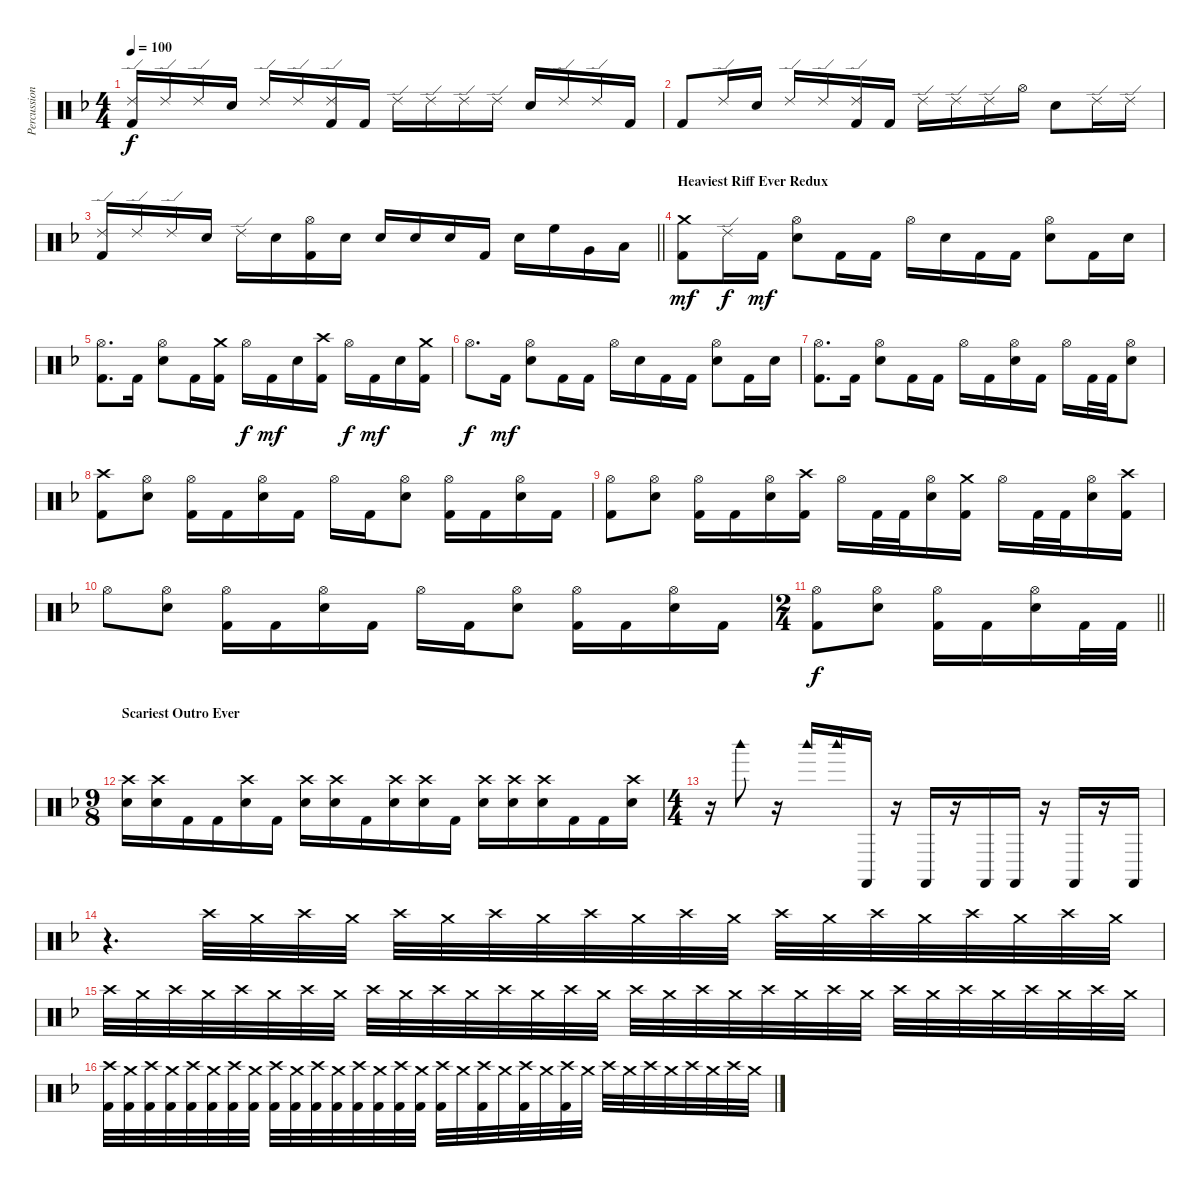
\track ("Percussion" "Percussion") {instrument percussion}
\staff {score}
\articulation defaults
\ts (4 4)
\tempo 100
\clef neutral
\ks dminor
("Ride (edge) 2" "Kick (hit) 2").16{dy f} "Ride (edge) 2".16 "Ride (edge) 2".16 "Snare (hit) 2".16 "Ride (edge) 2".16 "Ride (edge) 2".16 ("Ride (edge) 2" "Kick (hit) 2").16 "Kick (hit) 2".16 "Ride (edge) 2".16 "Ride (edge) 2".16 "Ride (edge) 2".16 "Ride (edge) 2".16 "Snare (hit) 2".16 "Ride (edge) 2".16 "Ride (edge) 2".16 "Kick (hit) 2".16 |
"Kick (hit) 2".8 "Ride (edge) 2".16 "Snare (hit) 2".16 "Ride (edge) 2".16 "Ride (edge) 2".16 ("Ride (edge) 2" "Kick (hit) 2").16 "Kick (hit) 2".16 "Ride (edge) 2".16 "Ride (edge) 2".16 "Ride (edge) 2".16 "Hi-Hat (open)".16 "Snare (hit) 2".8 "Ride (edge) 2".16 "Ride (edge) 2".16 |
\barLineRight lightlight
("Ride (edge) 2" "Kick (hit) 2").16 "Ride (edge) 2".16 "Ride (edge) 2".16 "Snare (hit) 2".16 "Ride (edge) 2".16 "Snare (hit) 2".16 ("Hi-Hat (open)" "Kick (hit) 2").16 "Snare (hit) 2".16 "Snare (hit) 2".16 "Snare (hit) 2".16 "Snare (hit) 2".16 "Kick (hit) 2".16 "Snare (hit) 2".16 "High Floor Tom (hit)".16 "Very Low Tom (hit)".16 "Low Floor Tom (hit)".16 |
\section ("" "Heaviest Riff Ever Redux")
("Crash medium (hit)" "Kick (hit) 2").8{dy mf} "Ride (edge) 2".16{dy f} "Kick (hit) 2".16{dy mf} ("Hi-Hat (open)" "Snare (hit) 2").8 "Kick (hit) 2".16 "Kick (hit) 2".16 "Hi-Hat (open)".16 "Snare (hit) 2".16 "Kick (hit) 2".16 "Kick (hit) 2".16 ("Hi-Hat (open)" "Snare (hit) 2").8 "Kick (hit) 2".16 "Snare (hit) 2".16 |
("Hi-Hat (open)" "Kick (hit) 2").8{d} "Kick (hit) 2".16 ("Hi-Hat (open)" "Snare (hit) 2").8 "Kick (hit) 2".16 ("Crash medium (hit)" "Kick (hit) 2").16 "Hi-Hat (open)".16{dy f} "Kick (hit) 2".16{dy mf} "Snare (hit) 2".16 ("Crash high (hit)" "Kick (hit) 2").16 "Hi-Hat (open)".16{dy f} "Kick (hit) 2".16{dy mf} "Snare (hit) 2".16 ("Crash medium (hit)" "Kick (hit) 2").16 |
"Hi-Hat (open)".8{d dy f} "Kick (hit) 2".16{dy mf} ("Hi-Hat (open)" "Snare (hit) 2").8 "Kick (hit) 2".16 "Kick (hit) 2".16 "Hi-Hat (open)".16 "Snare (hit) 2".16 "Kick (hit) 2".16 "Kick (hit) 2".16 ("Hi-Hat (open)" "Snare (hit) 2").8 "Kick (hit) 2".16 "Snare (hit) 2".16 |
("Hi-Hat (open)" "Kick (hit) 2").8{d} "Kick (hit) 2".16 ("Hi-Hat (open)" "Snare (hit) 2").8 "Kick (hit) 2".16 "Kick (hit) 2".16 "Hi-Hat (open)".16 "Kick (hit) 2".16 ("Hi-Hat (open)" "Snare (hit) 2").16 "Kick (hit) 2".16 "Hi-Hat (open)".16 "Kick (hit) 2".32 "Kick (hit) 2".32 ("Hi-Hat (open)" "Snare (hit) 2").8 |
("Crash high (hit)" "Kick (hit) 2").8 ("Hi-Hat (open)" "Snare (hit) 2").8 ("Hi-Hat (open)" "Kick (hit) 2").16 "Kick (hit) 2".16 ("Hi-Hat (open)" "Snare (hit) 2").16 "Kick (hit) 2".16 "Hi-Hat (open)".16 "Kick (hit) 2".16 ("Hi-Hat (open)" "Snare (hit) 2").8 ("Hi-Hat (open)" "Kick (hit) 2").16 "Kick (hit) 2".16 ("Hi-Hat (open)" "Snare (hit) 2").16 "Kick (hit) 2".16 |
("Hi-Hat (open)" "Kick (hit) 2").8 ("Hi-Hat (open)" "Snare (hit) 2").8 ("Hi-Hat (open)" "Kick (hit) 2").16 "Kick (hit) 2".16 ("Hi-Hat (open)" "Snare (hit) 2").16 ("Crash high (hit)" "Kick (hit) 2").16 "Hi-Hat (open)".16 "Kick (hit) 2".32 "Kick (hit) 2".32 ("Hi-Hat (open)" "Snare (hit) 2").16 ("Crash medium (hit)" "Kick (hit) 2").16 "Hi-Hat (open)".16 "Kick (hit) 2".32 "Kick (hit) 2".32 ("Hi-Hat (open)" "Snare (hit) 2").16 ("Crash high (hit)" "Kick (hit) 2").16 |
"Hi-Hat (open)".8 ("Hi-Hat (open)" "Snare (hit) 2").8 ("Hi-Hat (open)" "Kick (hit) 2").16 "Kick (hit) 2".16 ("Hi-Hat (open)" "Snare (hit) 2").16 "Kick (hit) 2".16 "Hi-Hat (open)".16 "Kick (hit) 2".16 ("Hi-Hat (open)" "Snare (hit) 2").8 ("Hi-Hat (open)" "Kick (hit) 2").16 "Kick (hit) 2".16 ("Hi-Hat (open)" "Snare (hit) 2").16 "Kick (hit) 2".16 |
\ts (2 4)
\barLineRight lightlight
("Hi-Hat (open)" "Kick (hit) 2").8{dy f} ("Hi-Hat (open)" "Snare (hit) 2").8 ("Hi-Hat (open)" "Kick (hit) 2").16 "Kick (hit) 2".16 ("Hi-Hat (open)" "Snare (hit) 2").16 "Kick (hit) 2".32 "Kick (hit) 2".32 |
\ts (9 8)
\section ("" "Scariest Outro Ever")
("Crash high (hit)" "Snare (hit) 2").16 ("Crash high (hit)" "Snare (hit) 2").16 "Kick (hit) 2".16 "Kick (hit) 2".16 ("Crash high (hit)" "Snare (hit) 2").16 "Kick (hit) 2".16 ("Crash high (hit)" "Snare (hit) 2").16 ("Crash high (hit)" "Snare (hit) 2").16 "Kick (hit) 2".16 ("Crash high (hit)" "Snare (hit) 2").16 ("Crash high (hit)" "Snare (hit) 2").16 "Kick (hit) 2".16 ("Crash high (hit)" "Snare (hit) 2").16 ("Crash high (hit)" "Snare (hit) 2").16 ("Crash high (hit)" "Snare (hit) 2").16 "Kick (hit) 2".16 "Kick (hit) 2".16 ("Crash high (hit)" "Snare (hit) 2").16 |
\ts (4 4)
r.16 "Woodblock high (hit)".8 r.16 "Woodblock high (hit)".16 "Woodblock high (hit)".16 "Castanets (hit)".16 r.16 "Castanets (hit)".16 r.16 "Castanets (hit)".16 "Castanets (hit)".16 r.16 "Castanets (hit)".16 r.16 "Castanets (hit)".16 |
r.4{d volume 1} "Crash high (hit)".32 "Crash medium (hit)".32 "Crash high (hit)".32 "Crash medium (hit)".32 "Crash high (hit)".32{volume 6} "Crash medium (hit)".32 "Crash high (hit)".32 "Crash medium (hit)".32 "Crash high (hit)".32 "Crash medium (hit)".32 "Crash high (hit)".32 "Crash medium (hit)".32 "Crash high (hit)".32 "Crash medium (hit)".32 "Crash high (hit)".32 "Crash medium (hit)".32 "Crash high (hit)".32 "Crash medium (hit)".32 "Crash high (hit)".32 "Crash medium (hit)".32 |
"Crash high (hit)".32 "Crash medium (hit)".32 "Crash high (hit)".32 "Crash medium (hit)".32 "Crash high (hit)".32 "Crash medium (hit)".32 "Crash high (hit)".32 "Crash medium (hit)".32 "Crash high (hit)".32 "Crash medium (hit)".32 "Crash high (hit)".32 "Crash medium (hit)".32 "Crash high (hit)".32 "Crash medium (hit)".32 "Crash high (hit)".32 "Crash medium (hit)".32 "Crash high (hit)".32 "Crash medium (hit)".32 "Crash high (hit)".32 "Crash medium (hit)".32 "Crash high (hit)".32 "Crash medium (hit)".32 "Crash high (hit)".32 "Crash medium (hit)".32 "Crash high (hit)".32 "Crash medium (hit)".32 "Crash high (hit)".32 "Crash medium (hit)".32 "Crash high (hit)".32 "Crash medium (hit)".32 "Crash high (hit)".32 "Crash medium (hit)".32 |
("Crash high (hit)" "Kick (hit) 2").32{volume 0} ("Crash medium (hit)" "Kick (hit) 2").32 ("Crash high (hit)" "Kick (hit) 2").32 ("Crash medium (hit)" "Kick (hit) 2").32 ("Crash high (hit)" "Kick (hit) 2").32 ("Crash medium (hit)" "Kick (hit) 2").32 ("Crash high (hit)" "Kick (hit) 2").32 ("Crash medium (hit)" "Kick (hit) 2").32 ("Crash high (hit)" "Kick (hit) 2").32 ("Crash medium (hit)" "Kick (hit) 2").32 ("Crash high (hit)" "Kick (hit) 2").32 ("Crash medium (hit)" "Kick (hit) 2").32 ("Crash high (hit)" "Kick (hit) 2").32 ("Crash medium (hit)" "Kick (hit) 2").32 ("Crash high (hit)" "Kick (hit) 2").32 ("Crash medium (hit)" "Kick (hit) 2").32 ("Crash high (hit)" "Kick (hit) 2").32 "Crash medium (hit)".32 ("Crash high (hit)" "Kick (hit) 2").32 "Crash medium (hit)".32 ("Crash high (hit)" "Kick (hit) 2").32 "Crash medium (hit)".32 ("Crash high (hit)" "Kick (hit) 2").32 "Crash medium (hit)".32 "Crash high (hit)".32 "Crash medium (hit)".32 "Crash high (hit)".32 "Crash medium (hit)".32 "Crash high (hit)".32 "Crash medium (hit)".32 "Crash high (hit)".32 "Crash medium (hit)".32
